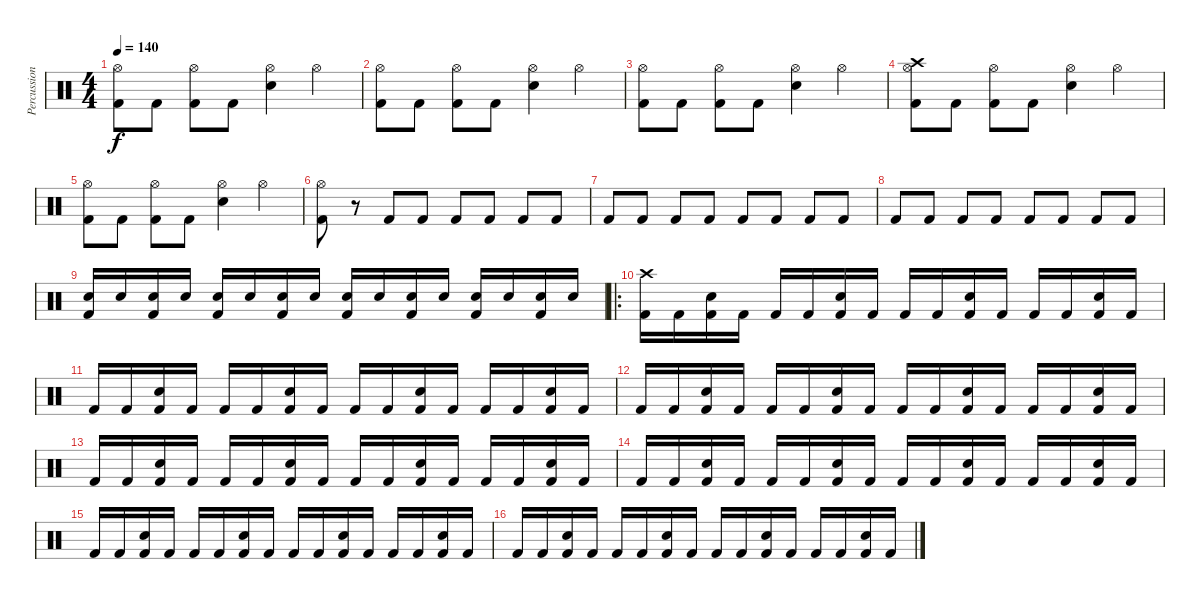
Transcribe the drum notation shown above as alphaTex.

\track ("Percussion" "Percussion") {instrument percussion}
\staff {score}
\articulation defaults
\ts (4 4)
\tempo 140
\clef neutral
\ks c
("Hi-Hat (open)" "Kick (hit) 2").8{dy f} "Kick (hit) 2".8 ("Hi-Hat (open)" "Kick (hit) 2").8 "Kick (hit) 2".8 ("Hi-Hat (open)" "Snare (hit) 2").4 "Hi-Hat (open)".4 |
("Hi-Hat (open)" "Kick (hit) 2").8 "Kick (hit) 2".8 ("Hi-Hat (open)" "Kick (hit) 2").8 "Kick (hit) 2".8 ("Hi-Hat (open)" "Snare (hit) 2").4 "Hi-Hat (open)".4 |
("Hi-Hat (open)" "Kick (hit) 2").8 "Kick (hit) 2".8 ("Hi-Hat (open)" "Kick (hit) 2").8 "Kick (hit) 2".8 ("Hi-Hat (open)" "Snare (hit) 2").4 "Hi-Hat (open)".4 |
("Crash high (hit)" "Hi-Hat (open)" "Kick (hit) 2").8 "Kick (hit) 2".8 ("Hi-Hat (open)" "Kick (hit) 2").8 "Kick (hit) 2".8 ("Hi-Hat (open)" "Snare (hit) 2").4 "Hi-Hat (open)".4 |
("Hi-Hat (open)" "Kick (hit) 2").8 "Kick (hit) 2".8 ("Hi-Hat (open)" "Kick (hit) 2").8 "Kick (hit) 2".8 ("Hi-Hat (open)" "Snare (hit) 2").4 "Hi-Hat (open)".4 |
("Hi-Hat (open)" "Kick (hit) 2").8 r.8 "Kick (hit) 2".8 "Kick (hit) 2".8 "Kick (hit) 2".8 "Kick (hit) 2".8 "Kick (hit) 2".8 "Kick (hit) 2".8 |
"Kick (hit) 2".8 "Kick (hit) 2".8 "Kick (hit) 2".8 "Kick (hit) 2".8 "Kick (hit) 2".8 "Kick (hit) 2".8 "Kick (hit) 2".8 "Kick (hit) 2".8 |
"Kick (hit) 2".8 "Kick (hit) 2".8 "Kick (hit) 2".8 "Kick (hit) 2".8 "Kick (hit) 2".8 "Kick (hit) 2".8 "Kick (hit) 2".8 "Kick (hit) 2".8 |
("Snare (hit) 2" "Kick (hit) 2").16 "Snare (hit) 2".16 ("Snare (hit) 2" "Kick (hit) 2").16 "Snare (hit) 2".16 ("Snare (hit) 2" "Kick (hit) 2").16 "Snare (hit) 2".16 ("Snare (hit) 2" "Kick (hit) 2").16 "Snare (hit) 2".16 ("Snare (hit) 2" "Kick (hit) 2").16 "Snare (hit) 2".16 ("Snare (hit) 2" "Kick (hit) 2").16 "Snare (hit) 2".16 ("Snare (hit) 2" "Kick (hit) 2").16 "Snare (hit) 2".16 ("Snare (hit) 2" "Kick (hit) 2").16 "Snare (hit) 2".16 |
\ro
("Crash high (hit)" "Kick (hit) 2").16 "Kick (hit) 2".16 ("Snare (hit) 2" "Kick (hit) 2").16 "Kick (hit) 2".16 "Kick (hit) 2".16 "Kick (hit) 2".16 ("Snare (hit) 2" "Kick (hit) 2").16 "Kick (hit) 2".16 "Kick (hit) 2".16 "Kick (hit) 2".16 ("Snare (hit) 2" "Kick (hit) 2").16 "Kick (hit) 2".16 "Kick (hit) 2".16 "Kick (hit) 2".16 ("Snare (hit) 2" "Kick (hit) 2").16 "Kick (hit) 2".16 |
"Kick (hit) 2".16 "Kick (hit) 2".16 ("Snare (hit) 2" "Kick (hit) 2").16 "Kick (hit) 2".16 "Kick (hit) 2".16 "Kick (hit) 2".16 ("Snare (hit) 2" "Kick (hit) 2").16 "Kick (hit) 2".16 "Kick (hit) 2".16 "Kick (hit) 2".16 ("Snare (hit) 2" "Kick (hit) 2").16 "Kick (hit) 2".16 "Kick (hit) 2".16 "Kick (hit) 2".16 ("Snare (hit) 2" "Kick (hit) 2").16 "Kick (hit) 2".16 |
"Kick (hit) 2".16 "Kick (hit) 2".16 ("Snare (hit) 2" "Kick (hit) 2").16 "Kick (hit) 2".16 "Kick (hit) 2".16 "Kick (hit) 2".16 ("Snare (hit) 2" "Kick (hit) 2").16 "Kick (hit) 2".16 "Kick (hit) 2".16 "Kick (hit) 2".16 ("Snare (hit) 2" "Kick (hit) 2").16 "Kick (hit) 2".16 "Kick (hit) 2".16 "Kick (hit) 2".16 ("Snare (hit) 2" "Kick (hit) 2").16 "Kick (hit) 2".16 |
"Kick (hit) 2".16 "Kick (hit) 2".16 ("Snare (hit) 2" "Kick (hit) 2").16 "Kick (hit) 2".16 "Kick (hit) 2".16 "Kick (hit) 2".16 ("Snare (hit) 2" "Kick (hit) 2").16 "Kick (hit) 2".16 "Kick (hit) 2".16 "Kick (hit) 2".16 ("Snare (hit) 2" "Kick (hit) 2").16 "Kick (hit) 2".16 "Kick (hit) 2".16 "Kick (hit) 2".16 ("Snare (hit) 2" "Kick (hit) 2").16 "Kick (hit) 2".16 |
"Kick (hit) 2".16 "Kick (hit) 2".16 ("Snare (hit) 2" "Kick (hit) 2").16 "Kick (hit) 2".16 "Kick (hit) 2".16 "Kick (hit) 2".16 ("Snare (hit) 2" "Kick (hit) 2").16 "Kick (hit) 2".16 "Kick (hit) 2".16 "Kick (hit) 2".16 ("Snare (hit) 2" "Kick (hit) 2").16 "Kick (hit) 2".16 "Kick (hit) 2".16 "Kick (hit) 2".16 ("Snare (hit) 2" "Kick (hit) 2").16 "Kick (hit) 2".16 |
"Kick (hit) 2".16 "Kick (hit) 2".16 ("Snare (hit) 2" "Kick (hit) 2").16 "Kick (hit) 2".16 "Kick (hit) 2".16 "Kick (hit) 2".16 ("Snare (hit) 2" "Kick (hit) 2").16 "Kick (hit) 2".16 "Kick (hit) 2".16 "Kick (hit) 2".16 ("Snare (hit) 2" "Kick (hit) 2").16 "Kick (hit) 2".16 "Kick (hit) 2".16 "Kick (hit) 2".16 ("Snare (hit) 2" "Kick (hit) 2").16 "Kick (hit) 2".16 |
"Kick (hit) 2".16 "Kick (hit) 2".16 ("Snare (hit) 2" "Kick (hit) 2").16 "Kick (hit) 2".16 "Kick (hit) 2".16 "Kick (hit) 2".16 ("Snare (hit) 2" "Kick (hit) 2").16 "Kick (hit) 2".16 "Kick (hit) 2".16 "Kick (hit) 2".16 ("Snare (hit) 2" "Kick (hit) 2").16 "Kick (hit) 2".16 "Kick (hit) 2".16 "Kick (hit) 2".16 ("Snare (hit) 2" "Kick (hit) 2").16 "Kick (hit) 2".16
